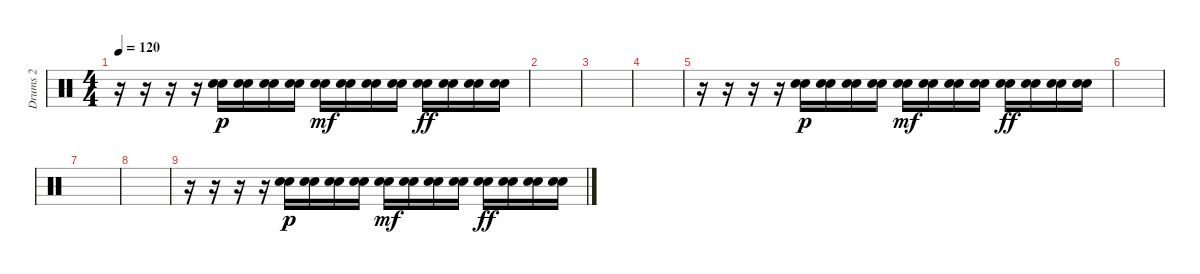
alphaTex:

\track ("Drums 2" "Drums 2") {instrument percussion}
\staff {score}
\articulation defaults
\ts (4 4)
\tempo 120
\clef neutral
\ks c
r.16{dy ff} r.16 r.16 r.16 ("Snare (hit) 2" "Snare (hit)").16{dy p} ("Snare (hit) 2" "Snare (hit)").16 ("Snare (hit) 2" "Snare (hit)").16 ("Snare (hit) 2" "Snare (hit)").16 ("Snare (hit) 2" "Snare (hit)").16{dy mf} ("Snare (hit) 2" "Snare (hit)").16 ("Snare (hit) 2" "Snare (hit)").16 ("Snare (hit) 2" "Snare (hit)").16 ("Snare (hit) 2" "Snare (hit)").16{dy ff} ("Snare (hit) 2" "Snare (hit)").16 ("Snare (hit) 2" "Snare (hit)").16 ("Snare (hit) 2" "Snare (hit)").16 |
|
|
|
r.16 r.16 r.16 r.16 ("Snare (hit) 2" "Snare (hit)").16{dy p} ("Snare (hit) 2" "Snare (hit)").16 ("Snare (hit) 2" "Snare (hit)").16 ("Snare (hit) 2" "Snare (hit)").16 ("Snare (hit) 2" "Snare (hit)").16{dy mf} ("Snare (hit) 2" "Snare (hit)").16 ("Snare (hit) 2" "Snare (hit)").16 ("Snare (hit) 2" "Snare (hit)").16 ("Snare (hit) 2" "Snare (hit)").16{dy ff} ("Snare (hit) 2" "Snare (hit)").16 ("Snare (hit) 2" "Snare (hit)").16 ("Snare (hit) 2" "Snare (hit)").16 |
|
|
|
r.16 r.16 r.16 r.16 ("Snare (hit) 2" "Snare (hit)").16{dy p} ("Snare (hit) 2" "Snare (hit)").16 ("Snare (hit) 2" "Snare (hit)").16 ("Snare (hit) 2" "Snare (hit)").16 ("Snare (hit) 2" "Snare (hit)").16{dy mf} ("Snare (hit) 2" "Snare (hit)").16 ("Snare (hit) 2" "Snare (hit)").16 ("Snare (hit) 2" "Snare (hit)").16 ("Snare (hit) 2" "Snare (hit)").16{dy ff} ("Snare (hit) 2" "Snare (hit)").16 ("Snare (hit) 2" "Snare (hit)").16 ("Snare (hit) 2" "Snare (hit)").16
